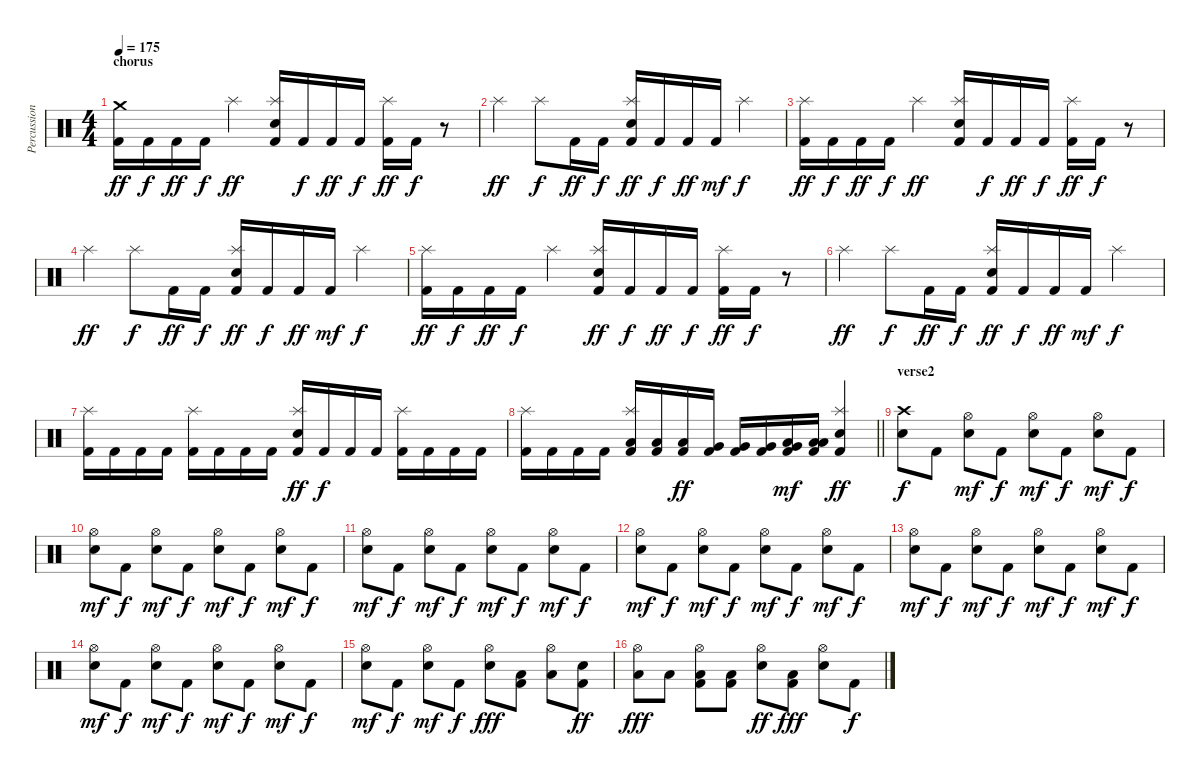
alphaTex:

\track ("Percussion" "Percussion") {instrument percussion}
\staff {score}
\articulation defaults
\ts (4 4)
\section ("" "chorus")
\tempo 175
\clef neutral
\ks c
("Crash medium (hit)" "Kick (hit) 2").16{dy ff} "Kick (hit) 2".16{dy f} "Kick (hit) 2".16{dy ff} "Kick (hit) 2".16{dy f} "Splash (hit)".4{dy ff} ("Electric Snare (hit)" "Splash (hit)" "Kick (hit) 2").16 "Kick (hit) 2".16{dy f} "Kick (hit) 2".16{dy ff} "Kick (hit) 2".16{dy f} ("Splash (hit)" "Kick (hit) 2").16{dy ff} "Kick (hit) 2".16{dy f} r.8 |
"Splash (hit)".4{dy ff} "Splash (hit)".8{dy f} "Kick (hit) 2".16{dy ff} "Kick (hit) 2".16{dy f} ("Electric Snare (hit)" "Splash (hit)" "Kick (hit) 2").16{dy ff} "Kick (hit) 2".16{dy f} "Kick (hit) 2".16{dy ff} "Kick (hit) 2".16{dy mf} "Splash (hit)".4{dy f} |
("Splash (hit)" "Kick (hit) 2").16{dy ff} "Kick (hit) 2".16{dy f} "Kick (hit) 2".16{dy ff} "Kick (hit) 2".16{dy f} "Splash (hit)".4{dy ff} ("Electric Snare (hit)" "Splash (hit)" "Kick (hit) 2").16 "Kick (hit) 2".16{dy f} "Kick (hit) 2".16{dy ff} "Kick (hit) 2".16{dy f} ("Splash (hit)" "Kick (hit) 2").16{dy ff} "Kick (hit) 2".16{dy f} r.8 |
"Splash (hit)".4{dy ff} "Splash (hit)".8{dy f} "Kick (hit) 2".16{dy ff} "Kick (hit) 2".16{dy f} ("Electric Snare (hit)" "Splash (hit)" "Kick (hit) 2").16{dy ff} "Kick (hit) 2".16{dy f} "Kick (hit) 2".16{dy ff} "Kick (hit) 2".16{dy mf} "Splash (hit)".4{dy f} |
("Splash (hit)" "Kick (hit) 2").16{dy ff} "Kick (hit) 2".16{dy f} "Kick (hit) 2".16{dy ff} "Kick (hit) 2".16{dy f} "Splash (hit)".4 ("Electric Snare (hit)" "Splash (hit)" "Kick (hit) 2").16{dy ff} "Kick (hit) 2".16{dy f} "Kick (hit) 2".16{dy ff} "Kick (hit) 2".16{dy f} ("Splash (hit)" "Kick (hit) 2").16{dy ff} "Kick (hit) 2".16{dy f} r.8 |
"Splash (hit)".4{dy ff} "Splash (hit)".8{dy f} "Kick (hit) 2".16{dy ff} "Kick (hit) 2".16{dy f} ("Electric Snare (hit)" "Splash (hit)" "Kick (hit) 2").16{dy ff} "Kick (hit) 2".16{dy f} "Kick (hit) 2".16{dy ff} "Kick (hit) 2".16{dy mf} "Splash (hit)".4{dy f} |
("Splash (hit)" "Kick (hit) 2").16 "Kick (hit) 2".16 "Kick (hit) 2".16 "Kick (hit) 2".16 ("Splash (hit)" "Kick (hit) 2").16 "Kick (hit) 2".16 "Kick (hit) 2".16 "Kick (hit) 2".16 ("Electric Snare (hit)" "Splash (hit)" "Kick (hit) 2").16{dy ff} "Kick (hit) 2".16{dy f} "Kick (hit) 2".16 "Kick (hit) 2".16 ("Splash (hit)" "Kick (hit) 2").16 "Kick (hit) 2".16 "Kick (hit) 2".16 "Kick (hit) 2".16 |
\barLineRight lightlight
("Splash (hit)" "Kick (hit) 2").16 "Kick (hit) 2".16 "Kick (hit) 2".16 "Kick (hit) 2".16 ("Low Tom (hit)" "Splash (hit)" "Kick (hit) 2").16 ("Low Tom (hit)" "Kick (hit) 2").16 ("Low Tom (hit)" "Kick (hit) 2").16{dy ff} ("Very Low Tom (hit)" "Kick (hit) 2").16 ("Very Low Tom (hit)" "Kick (hit) 2").16 ("Very Low Tom (hit)" "Kick (hit) 2").16 ("Very Low Tom (hit)" "Low Floor Tom (hit)" "Kick (hit) 2").16{dy mf} ("Low Floor Tom (hit)" "Low Floor Tom (hit)" "Kick (hit) 2").16 ("Electric Snare (hit)" "Splash (hit)" "Kick (hit) 2").4{dy ff} |
\section ("" "verse2")
("Crash high (hit)" "Electric Snare (hit)").8{dy f} "Kick (hit) 2".8 ("Hi-Hat (open)" "Electric Snare (hit)").8{dy mf} "Kick (hit) 2".8{dy f} ("Hi-Hat (open)" "Electric Snare (hit)").8{dy mf} "Kick (hit) 2".8{dy f} ("Hi-Hat (open)" "Electric Snare (hit)").8{dy mf} "Kick (hit) 2".8{dy f} |
("Hi-Hat (open)" "Electric Snare (hit)").8{dy mf} "Kick (hit) 2".8{dy f} ("Hi-Hat (open)" "Electric Snare (hit)").8{dy mf} "Kick (hit) 2".8{dy f} ("Hi-Hat (open)" "Electric Snare (hit)").8{dy mf} "Kick (hit) 2".8{dy f} ("Hi-Hat (open)" "Electric Snare (hit)").8{dy mf} "Kick (hit) 2".8{dy f} |
("Hi-Hat (open)" "Electric Snare (hit)").8{dy mf} "Kick (hit) 2".8{dy f} ("Hi-Hat (open)" "Electric Snare (hit)").8{dy mf} "Kick (hit) 2".8{dy f} ("Hi-Hat (open)" "Electric Snare (hit)").8{dy mf} "Kick (hit) 2".8{dy f} ("Hi-Hat (open)" "Electric Snare (hit)").8{dy mf} "Kick (hit) 2".8{dy f} |
("Hi-Hat (open)" "Electric Snare (hit)").8{dy mf} "Kick (hit) 2".8{dy f} ("Hi-Hat (open)" "Electric Snare (hit)").8{dy mf} "Kick (hit) 2".8{dy f} ("Hi-Hat (open)" "Electric Snare (hit)").8{dy mf} "Kick (hit) 2".8{dy f} ("Hi-Hat (open)" "Electric Snare (hit)").8{dy mf} "Kick (hit) 2".8{dy f} |
("Hi-Hat (open)" "Electric Snare (hit)").8{dy mf} "Kick (hit) 2".8{dy f} ("Hi-Hat (open)" "Electric Snare (hit)").8{dy mf} "Kick (hit) 2".8{dy f} ("Hi-Hat (open)" "Electric Snare (hit)").8{dy mf} "Kick (hit) 2".8{dy f} ("Hi-Hat (open)" "Electric Snare (hit)").8{dy mf} "Kick (hit) 2".8{dy f} |
("Hi-Hat (open)" "Electric Snare (hit)").8{dy mf} "Kick (hit) 2".8{dy f} ("Hi-Hat (open)" "Electric Snare (hit)").8{dy mf} "Kick (hit) 2".8{dy f} ("Hi-Hat (open)" "Electric Snare (hit)").8{dy mf} "Kick (hit) 2".8{dy f} ("Hi-Hat (open)" "Electric Snare (hit)").8{dy mf} "Kick (hit) 2".8{dy f} |
("Hi-Hat (open)" "Electric Snare (hit)").8{dy mf} "Kick (hit) 2".8{dy f} ("Hi-Hat (open)" "Electric Snare (hit)").8{dy mf} "Kick (hit) 2".8{dy f} ("Hi-Hat (open)" "Electric Snare (hit)").8{dy fff} ("Low Floor Tom (hit)" "Kick (hit) 2").8 ("Hi-Hat (open)" "Low Floor Tom (hit)").8 ("Electric Snare (hit)" "Kick (hit) 2").8{dy ff} |
("Hi-Hat (open)" "Low Floor Tom (hit)").8{dy fff} "Low Floor Tom (hit)".8 ("Hi-Hat (open)" "Low Floor Tom (hit)" "Kick (hit) 2").8 ("Low Floor Tom (hit)" "Kick (hit) 2").8 ("Hi-Hat (open)" "Electric Snare (hit)").8{dy ff} ("Low Floor Tom (hit)" "Kick (hit) 2").8{dy fff} ("Hi-Hat (open)" "Electric Snare (hit)").8 "Kick (hit) 2".8{dy f}
